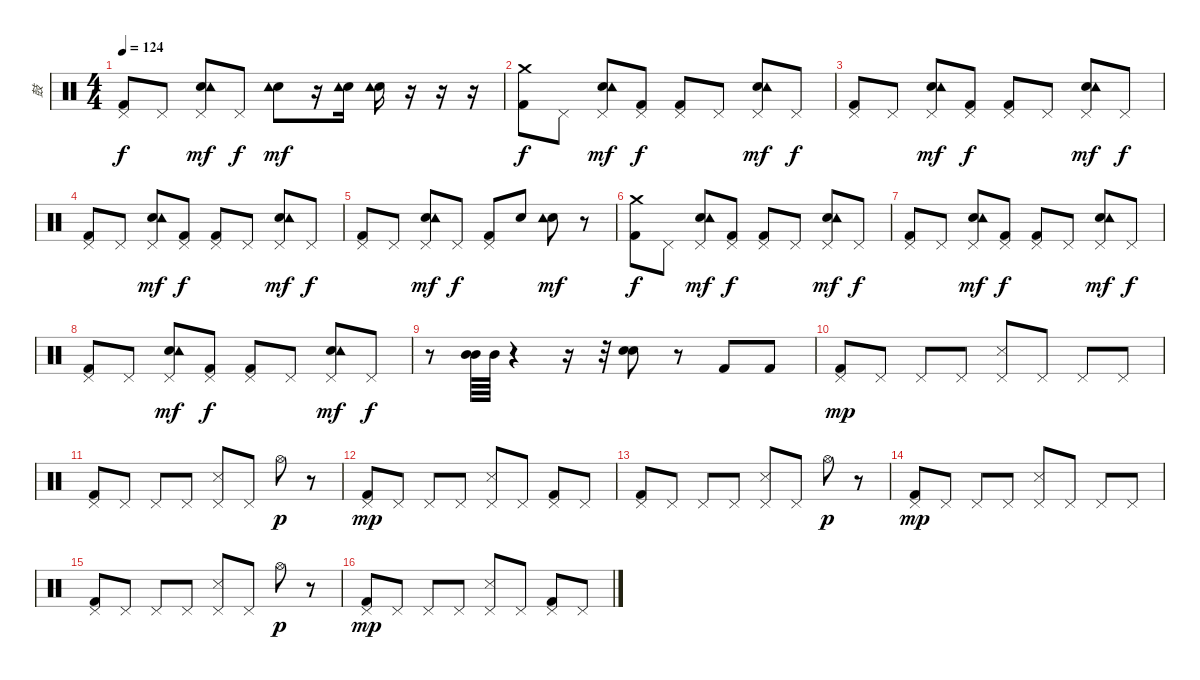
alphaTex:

\track ("鼓" "鼓") {instrument percussion}
\staff {score}
\articulation defaults
\ts (4 4)
\tempo 124
\clef neutral
\ks c
("Kick (hit) 2" "Pedal Hi-Hat (hit)").8{dy f} "Pedal Hi-Hat (hit)".8 ("Electric Snare (hit)" "Pedal Hi-Hat (hit)" "Tambourine (hit)").8{dy mf} "Pedal Hi-Hat (hit)".8{dy f} ("Electric Snare (hit)" "Tambourine (hit)").8{dy mf} r.16 ("Electric Snare (hit)" "Tambourine (hit)").16 ("Electric Snare (hit)" "Tambourine (hit)").16 r.16 r.16 r.16 |
("Kick (hit) 2" "Crash medium (hit)").8{dy f} "Pedal Hi-Hat (hit)".8 ("Electric Snare (hit)" "Pedal Hi-Hat (hit)" "Tambourine (hit)").8{dy mf} ("Kick (hit) 2" "Pedal Hi-Hat (hit)").8{dy f} ("Kick (hit) 2" "Pedal Hi-Hat (hit)").8 "Pedal Hi-Hat (hit)".8 ("Electric Snare (hit)" "Pedal Hi-Hat (hit)" "Tambourine (hit)").8{dy mf} "Pedal Hi-Hat (hit)".8{dy f} |
("Kick (hit) 2" "Pedal Hi-Hat (hit)").8 "Pedal Hi-Hat (hit)".8 ("Electric Snare (hit)" "Pedal Hi-Hat (hit)" "Tambourine (hit)").8{dy mf} ("Kick (hit) 2" "Pedal Hi-Hat (hit)").8{dy f} ("Kick (hit) 2" "Pedal Hi-Hat (hit)").8 "Pedal Hi-Hat (hit)".8 ("Electric Snare (hit)" "Pedal Hi-Hat (hit)" "Tambourine (hit)").8{dy mf} "Pedal Hi-Hat (hit)".8{dy f} |
("Kick (hit) 2" "Pedal Hi-Hat (hit)").8 "Pedal Hi-Hat (hit)".8 ("Electric Snare (hit)" "Pedal Hi-Hat (hit)" "Tambourine (hit)").8{dy mf} ("Kick (hit) 2" "Pedal Hi-Hat (hit)").8{dy f} ("Kick (hit) 2" "Pedal Hi-Hat (hit)").8 "Pedal Hi-Hat (hit)".8 ("Electric Snare (hit)" "Pedal Hi-Hat (hit)" "Tambourine (hit)").8{dy mf} "Pedal Hi-Hat (hit)".8{dy f} |
("Kick (hit) 2" "Pedal Hi-Hat (hit)").8 "Pedal Hi-Hat (hit)".8 ("Electric Snare (hit)" "Pedal Hi-Hat (hit)" "Tambourine (hit)").8{dy mf} "Pedal Hi-Hat (hit)".8{dy f} ("Kick (hit) 2" "Pedal Hi-Hat (hit)").8 "Electric Snare (hit)".8 ("Electric Snare (hit)" "Tambourine (hit)").8{dy mf} r.8 |
("Kick (hit) 2" "Crash medium (hit)").8{dy f} "Pedal Hi-Hat (hit)".8 ("Electric Snare (hit)" "Pedal Hi-Hat (hit)" "Tambourine (hit)").8{dy mf} ("Kick (hit) 2" "Pedal Hi-Hat (hit)").8{dy f} ("Kick (hit) 2" "Pedal Hi-Hat (hit)").8 "Pedal Hi-Hat (hit)".8 ("Electric Snare (hit)" "Pedal Hi-Hat (hit)" "Tambourine (hit)").8{dy mf} "Pedal Hi-Hat (hit)".8{dy f} |
("Kick (hit) 2" "Pedal Hi-Hat (hit)").8 "Pedal Hi-Hat (hit)".8 ("Electric Snare (hit)" "Pedal Hi-Hat (hit)" "Tambourine (hit)").8{dy mf} ("Kick (hit) 2" "Pedal Hi-Hat (hit)").8{dy f} ("Kick (hit) 2" "Pedal Hi-Hat (hit)").8 "Pedal Hi-Hat (hit)".8 ("Electric Snare (hit)" "Pedal Hi-Hat (hit)" "Tambourine (hit)").8{dy mf} "Pedal Hi-Hat (hit)".8{dy f} |
("Kick (hit) 2" "Pedal Hi-Hat (hit)").8 "Pedal Hi-Hat (hit)".8 ("Electric Snare (hit)" "Pedal Hi-Hat (hit)" "Tambourine (hit)").8{dy mf} ("Kick (hit) 2" "Pedal Hi-Hat (hit)").8{dy f} ("Kick (hit) 2" "Pedal Hi-Hat (hit)").8 "Pedal Hi-Hat (hit)".8 ("Electric Snare (hit)" "Pedal Hi-Hat (hit)" "Tambourine (hit)").8{dy mf} "Pedal Hi-Hat (hit)".8{dy f} |
r.8 ("Mid Tom (hit)" "Mid Tom (hit)").64 "Mid Tom (hit)".64 r.4 r.16 r.32 ("Electric Snare (hit)" "Electric Snare (hit)").8 r.8 "Kick (hit) 2".8 "Kick (hit) 2".8 |
("Kick (hit) 2" "Pedal Hi-Hat (hit)").8{dy mp volume 16 balance 8} "Pedal Hi-Hat (hit)".8 "Pedal Hi-Hat (hit)".8 "Pedal Hi-Hat (hit)".8 ("Snare (side stick) 3" "Pedal Hi-Hat (hit)").8 "Pedal Hi-Hat (hit)".8 "Pedal Hi-Hat (hit)".8 "Pedal Hi-Hat (hit)".8 |
("Kick (hit) 2" "Pedal Hi-Hat (hit)").8 "Pedal Hi-Hat (hit)".8 "Pedal Hi-Hat (hit)".8 "Pedal Hi-Hat (hit)".8 ("Snare (side stick) 3" "Pedal Hi-Hat (hit)").8 "Pedal Hi-Hat (hit)".8 "Hi-Hat (open)".8{dy p} r.8 |
("Kick (hit) 2" "Pedal Hi-Hat (hit)").8{dy mp} "Pedal Hi-Hat (hit)".8 "Pedal Hi-Hat (hit)".8 "Pedal Hi-Hat (hit)".8 ("Snare (side stick) 3" "Pedal Hi-Hat (hit)").8 "Pedal Hi-Hat (hit)".8 ("Kick (hit) 2" "Pedal Hi-Hat (hit)").8 "Pedal Hi-Hat (hit)".8 |
("Kick (hit) 2" "Pedal Hi-Hat (hit)").8 "Pedal Hi-Hat (hit)".8 "Pedal Hi-Hat (hit)".8 "Pedal Hi-Hat (hit)".8 ("Snare (side stick) 3" "Pedal Hi-Hat (hit)").8 "Pedal Hi-Hat (hit)".8 "Hi-Hat (open)".8{dy p} r.8 |
("Kick (hit) 2" "Pedal Hi-Hat (hit)").8{dy mp} "Pedal Hi-Hat (hit)".8 "Pedal Hi-Hat (hit)".8 "Pedal Hi-Hat (hit)".8 ("Snare (side stick) 3" "Pedal Hi-Hat (hit)").8 "Pedal Hi-Hat (hit)".8 "Pedal Hi-Hat (hit)".8 "Pedal Hi-Hat (hit)".8 |
("Kick (hit) 2" "Pedal Hi-Hat (hit)").8 "Pedal Hi-Hat (hit)".8 "Pedal Hi-Hat (hit)".8 "Pedal Hi-Hat (hit)".8 ("Snare (side stick) 3" "Pedal Hi-Hat (hit)").8 "Pedal Hi-Hat (hit)".8 "Hi-Hat (open)".8{dy p} r.8 |
("Kick (hit) 2" "Pedal Hi-Hat (hit)").8{dy mp} "Pedal Hi-Hat (hit)".8 "Pedal Hi-Hat (hit)".8 "Pedal Hi-Hat (hit)".8 ("Snare (side stick) 3" "Pedal Hi-Hat (hit)").8 "Pedal Hi-Hat (hit)".8 ("Kick (hit) 2" "Pedal Hi-Hat (hit)").8 "Pedal Hi-Hat (hit)".8
